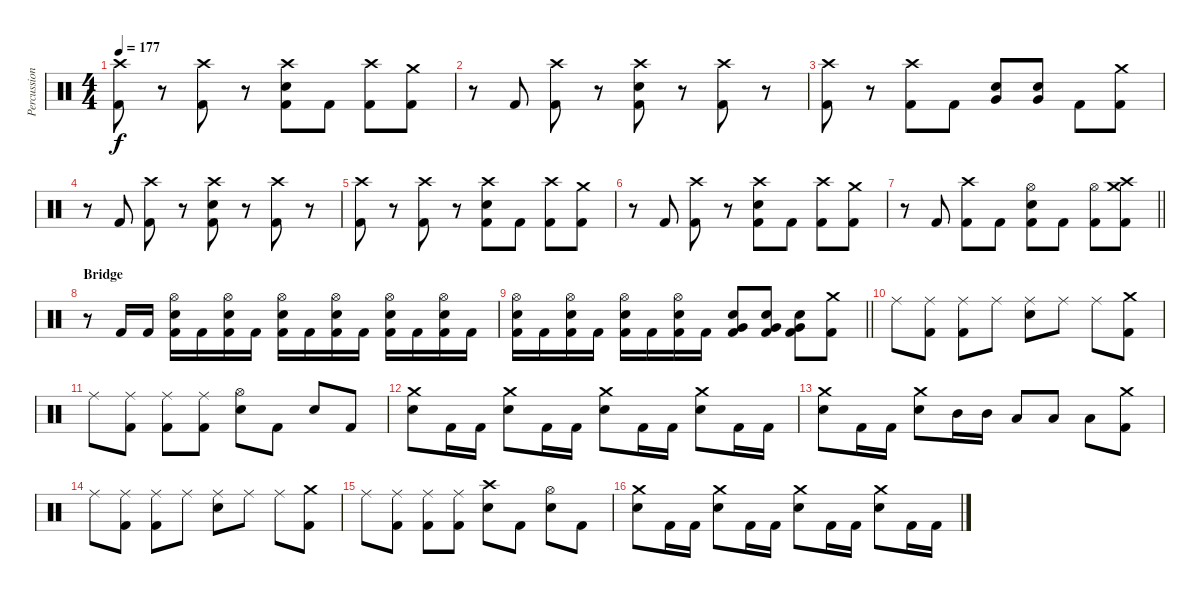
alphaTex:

\track ("Percussion" "Percussion") {instrument percussion}
\staff {score}
\articulation defaults
\ts (4 4)
\tempo 177
\clef neutral
\ks c
("Crash high (hit)" "Kick (hit) 2").8{dy f} r.8 ("Crash high (hit)" "Kick (hit) 2").8 r.8 ("Crash high (hit)" "Snare (hit) 2" "Kick (hit) 2").8 "Kick (hit) 2".8 ("Crash high (hit)" "Kick (hit) 2").8 ("Crash medium (hit)" "Kick (hit) 2").8 |
r.8 "Kick (hit) 2".8 ("Crash high (hit)" "Kick (hit) 2").8 r.8 ("Crash high (hit)" "Snare (hit) 2" "Kick (hit) 2").8 r.8 ("Crash high (hit)" "Kick (hit) 2").8 r.8 |
("Crash high (hit)" "Kick (hit) 2").8 r.8 ("Crash high (hit)" "Kick (hit) 2").8 "Kick (hit) 2".8 ("Very Low Tom (hit)" "Snare (hit) 2").8 ("Very Low Tom (hit)" "Snare (hit) 2").8 "Kick (hit) 2".8 ("Crash medium (hit)" "Kick (hit) 2").8 |
r.8 "Kick (hit) 2".8 ("Crash high (hit)" "Kick (hit) 2").8 r.8 ("Crash high (hit)" "Snare (hit) 2" "Kick (hit) 2").8 r.8 ("Crash high (hit)" "Kick (hit) 2").8 r.8 |
("Crash high (hit)" "Kick (hit) 2").8 r.8 ("Crash high (hit)" "Kick (hit) 2").8 r.8 ("Crash high (hit)" "Snare (hit) 2" "Kick (hit) 2").8 "Kick (hit) 2".8 ("Crash high (hit)" "Kick (hit) 2").8 ("Crash medium (hit)" "Kick (hit) 2").8 |
r.8 "Kick (hit) 2".8 ("Crash high (hit)" "Kick (hit) 2").8 r.8 ("Crash high (hit)" "Snare (hit) 2" "Kick (hit) 2").8 "Kick (hit) 2".8 ("Crash high (hit)" "Kick (hit) 2").8 ("Crash medium (hit)" "Kick (hit) 2").8 |
\barLineRight lightlight
r.8 "Kick (hit) 2".8 ("Crash high (hit)" "Kick (hit) 2").8 "Kick (hit) 2".8 ("Hi-Hat (open)" "Snare (hit) 2" "Kick (hit) 2").8 "Kick (hit) 2".8 ("Hi-Hat (open)" "Kick (hit) 2").8 ("Crash high (hit)" "Crash medium (hit)" "Kick (hit) 2").8 |
\section ("" "Bridge")
r.8 "Kick (hit) 2".16 "Kick (hit) 2".16 ("Hi-Hat (open)" "Snare (hit) 2" "Kick (hit) 2").16 "Kick (hit) 2".16 ("Hi-Hat (open)" "Snare (hit) 2" "Kick (hit) 2").16 "Kick (hit) 2".16 ("Hi-Hat (open)" "Snare (hit) 2" "Kick (hit) 2").16 "Kick (hit) 2".16 ("Hi-Hat (open)" "Snare (hit) 2" "Kick (hit) 2").16 "Kick (hit) 2".16 ("Hi-Hat (open)" "Snare (hit) 2" "Kick (hit) 2").16 "Kick (hit) 2".16 ("Hi-Hat (open)" "Snare (hit) 2" "Kick (hit) 2").16 "Kick (hit) 2".16 |
\barLineRight lightlight
("Hi-Hat (open)" "Snare (hit) 2" "Kick (hit) 2").16 "Kick (hit) 2".16 ("Hi-Hat (open)" "Snare (hit) 2" "Kick (hit) 2").16 "Kick (hit) 2".16 ("Hi-Hat (open)" "Snare (hit) 2" "Kick (hit) 2").16 "Kick (hit) 2".16 ("Hi-Hat (open)" "Snare (hit) 2" "Kick (hit) 2").16 "Kick (hit) 2".16 ("Very Low Tom (hit)" "Snare (hit) 2" "Kick (hit) 2").8 ("Very Low Tom (hit)" "Snare (hit) 2" "Kick (hit) 2").8 ("Very Low Tom (hit)" "Snare (hit) 2" "Kick (hit) 2").8 ("Crash medium (hit)" "Kick (hit) 2").8 |
\section ("" "")
"Ride (middle)".8 ("Ride (middle)" "Kick (hit) 2").8 ("Ride (middle)" "Kick (hit) 2").8 "Ride (middle)".8 ("Ride (middle)" "Snare (hit) 2").8 "Ride (middle)".8 "Ride (middle)".8 ("Crash medium (hit)" "Kick (hit) 2").8 |
"Ride (middle)".8 ("Ride (middle)" "Kick (hit) 2").8 ("Ride (middle)" "Kick (hit) 2").8 ("Ride (middle)" "Kick (hit) 2").8 ("Hi-Hat (open)" "Snare (hit) 2").8 "Kick (hit) 2".8 "Snare (hit) 2".8 "Kick (hit) 2".8 |
("Crash medium (hit)" "Snare (hit) 2").8 "Kick (hit) 2".16 "Kick (hit) 2".16 ("Crash medium (hit)" "Snare (hit) 2").8 "Kick (hit) 2".16 "Kick (hit) 2".16 ("Crash medium (hit)" "Snare (hit) 2").8 "Kick (hit) 2".16 "Kick (hit) 2".16 ("Crash medium (hit)" "Snare (hit) 2").8 "Kick (hit) 2".16 "Kick (hit) 2".16 |
("Crash medium (hit)" "Snare (hit) 2").8 "Kick (hit) 2".16 "Kick (hit) 2".16 ("Crash medium (hit)" "Snare (hit) 2").8 "Mid Tom (hit)".16 "Mid Tom (hit)".16 "Low Tom (hit)".8 "Low Tom (hit)".8 "Low Tom (hit)".8 ("Crash medium (hit)" "Kick (hit) 2").8 |
"Ride (middle)".8 ("Ride (middle)" "Kick (hit) 2").8 ("Ride (middle)" "Kick (hit) 2").8 "Ride (middle)".8 ("Ride (middle)" "Snare (hit) 2").8 "Ride (middle)".8 "Ride (middle)".8 ("Crash medium (hit)" "Kick (hit) 2").8 |
"Ride (middle)".8 ("Ride (middle)" "Kick (hit) 2").8 ("Ride (middle)" "Kick (hit) 2").8 ("Ride (middle)" "Kick (hit) 2").8 ("Crash high (hit)" "Snare (hit) 2").8 "Kick (hit) 2".8 ("Hi-Hat (open)" "Snare (hit) 2").8 "Kick (hit) 2".8 |
("Crash medium (hit)" "Snare (hit) 2").8 "Kick (hit) 2".16 "Kick (hit) 2".16 ("Crash medium (hit)" "Snare (hit) 2").8 "Kick (hit) 2".16 "Kick (hit) 2".16 ("Crash medium (hit)" "Snare (hit) 2").8 "Kick (hit) 2".16 "Kick (hit) 2".16 ("Crash medium (hit)" "Snare (hit) 2").8 "Kick (hit) 2".16 "Kick (hit) 2".16
